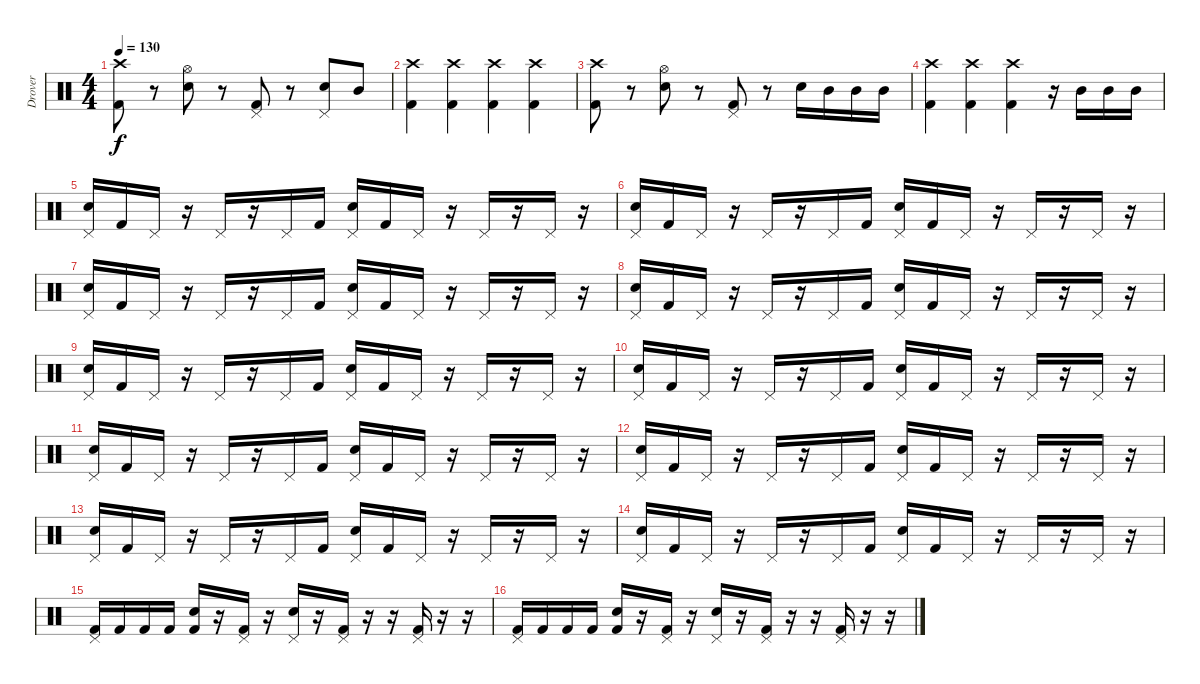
\track ("Drover" "Drover") {instrument percussion}
\staff {score}
\articulation defaults
\ts (4 4)
\tempo 130
\clef neutral
\ks c
("Crash high (hit)" "Kick (hit) 2").8{dy f} r.8 ("Electric Snare (hit)" "Hi-Hat (open)").8 r.8 ("Kick (hit) 2" "Pedal Hi-Hat (hit)").8 r.8 ("Electric Snare (hit)" "Pedal Hi-Hat (hit)").8 "Mid Tom (hit)".8 |
("Kick (hit) 2" "Crash high (hit)").4 ("Kick (hit) 2" "Crash high (hit)").4 ("Kick (hit) 2" "Crash high (hit)").4 ("Kick (hit) 2" "Crash high (hit)").4 |
("Crash high (hit)" "Kick (hit) 2").8 r.8 ("Electric Snare (hit)" "Hi-Hat (open)").8 r.8 ("Kick (hit) 2" "Pedal Hi-Hat (hit)").8 r.8 "Snare (hit) 2".16 "Mid Tom (hit)".16 "Mid Tom (hit)".16 "Mid Tom (hit)".16 |
("Kick (hit) 2" "Crash high (hit)").4 ("Kick (hit) 2" "Crash high (hit)").4 ("Kick (hit) 2" "Crash high (hit)").4 r.16 "Mid Tom (hit)".16 "Mid Tom (hit)".16 "Mid Tom (hit)".16 |
("Electric Snare (hit)" "Pedal Hi-Hat (hit)").16 "Kick (hit) 2".16 "Pedal Hi-Hat (hit)".16 r.16 "Pedal Hi-Hat (hit)".16 r.16 "Pedal Hi-Hat (hit)".16 "Kick (hit) 2".16 ("Electric Snare (hit)" "Pedal Hi-Hat (hit)").16 "Kick (hit) 2".16 "Pedal Hi-Hat (hit)".16 r.16 "Pedal Hi-Hat (hit)".16 r.16 "Pedal Hi-Hat (hit)".16 r.16 |
("Electric Snare (hit)" "Pedal Hi-Hat (hit)").16 "Kick (hit) 2".16 "Pedal Hi-Hat (hit)".16 r.16 "Pedal Hi-Hat (hit)".16 r.16 "Pedal Hi-Hat (hit)".16 "Kick (hit) 2".16 ("Electric Snare (hit)" "Pedal Hi-Hat (hit)").16 "Kick (hit) 2".16 "Pedal Hi-Hat (hit)".16 r.16 "Pedal Hi-Hat (hit)".16 r.16 "Pedal Hi-Hat (hit)".16 r.16 |
("Electric Snare (hit)" "Pedal Hi-Hat (hit)").16 "Kick (hit) 2".16 "Pedal Hi-Hat (hit)".16 r.16 "Pedal Hi-Hat (hit)".16 r.16 "Pedal Hi-Hat (hit)".16 "Kick (hit) 2".16 ("Electric Snare (hit)" "Pedal Hi-Hat (hit)").16 "Kick (hit) 2".16 "Pedal Hi-Hat (hit)".16 r.16 "Pedal Hi-Hat (hit)".16 r.16 "Pedal Hi-Hat (hit)".16 r.16 |
("Electric Snare (hit)" "Pedal Hi-Hat (hit)").16 "Kick (hit) 2".16 "Pedal Hi-Hat (hit)".16 r.16 "Pedal Hi-Hat (hit)".16 r.16 "Pedal Hi-Hat (hit)".16 "Kick (hit) 2".16 ("Electric Snare (hit)" "Pedal Hi-Hat (hit)").16 "Kick (hit) 2".16 "Pedal Hi-Hat (hit)".16 r.16 "Pedal Hi-Hat (hit)".16 r.16 "Pedal Hi-Hat (hit)".16 r.16 |
("Electric Snare (hit)" "Pedal Hi-Hat (hit)").16 "Kick (hit) 2".16 "Pedal Hi-Hat (hit)".16 r.16 "Pedal Hi-Hat (hit)".16 r.16 "Pedal Hi-Hat (hit)".16 "Kick (hit) 2".16 ("Electric Snare (hit)" "Pedal Hi-Hat (hit)").16 "Kick (hit) 2".16 "Pedal Hi-Hat (hit)".16 r.16 "Pedal Hi-Hat (hit)".16 r.16 "Pedal Hi-Hat (hit)".16 r.16 |
("Electric Snare (hit)" "Pedal Hi-Hat (hit)").16 "Kick (hit) 2".16 "Pedal Hi-Hat (hit)".16 r.16 "Pedal Hi-Hat (hit)".16 r.16 "Pedal Hi-Hat (hit)".16 "Kick (hit) 2".16 ("Electric Snare (hit)" "Pedal Hi-Hat (hit)").16 "Kick (hit) 2".16 "Pedal Hi-Hat (hit)".16 r.16 "Pedal Hi-Hat (hit)".16 r.16 "Pedal Hi-Hat (hit)".16 r.16 |
("Electric Snare (hit)" "Pedal Hi-Hat (hit)").16 "Kick (hit) 2".16 "Pedal Hi-Hat (hit)".16 r.16 "Pedal Hi-Hat (hit)".16 r.16 "Pedal Hi-Hat (hit)".16 "Kick (hit) 2".16 ("Electric Snare (hit)" "Pedal Hi-Hat (hit)").16 "Kick (hit) 2".16 "Pedal Hi-Hat (hit)".16 r.16 "Pedal Hi-Hat (hit)".16 r.16 "Pedal Hi-Hat (hit)".16 r.16 |
("Electric Snare (hit)" "Pedal Hi-Hat (hit)").16 "Kick (hit) 2".16 "Pedal Hi-Hat (hit)".16 r.16 "Pedal Hi-Hat (hit)".16 r.16 "Pedal Hi-Hat (hit)".16 "Kick (hit) 2".16 ("Electric Snare (hit)" "Pedal Hi-Hat (hit)").16 "Kick (hit) 2".16 "Pedal Hi-Hat (hit)".16 r.16 "Pedal Hi-Hat (hit)".16 r.16 "Pedal Hi-Hat (hit)".16 r.16 |
("Electric Snare (hit)" "Pedal Hi-Hat (hit)").16 "Kick (hit) 2".16 "Pedal Hi-Hat (hit)".16 r.16 "Pedal Hi-Hat (hit)".16 r.16 "Pedal Hi-Hat (hit)".16 "Kick (hit) 2".16 ("Electric Snare (hit)" "Pedal Hi-Hat (hit)").16 "Kick (hit) 2".16 "Pedal Hi-Hat (hit)".16 r.16 "Pedal Hi-Hat (hit)".16 r.16 "Pedal Hi-Hat (hit)".16 r.16 |
("Electric Snare (hit)" "Pedal Hi-Hat (hit)").16 "Kick (hit) 2".16 "Pedal Hi-Hat (hit)".16 r.16 "Pedal Hi-Hat (hit)".16 r.16 "Pedal Hi-Hat (hit)".16 "Kick (hit) 2".16 ("Electric Snare (hit)" "Pedal Hi-Hat (hit)").16 "Kick (hit) 2".16 "Pedal Hi-Hat (hit)".16 r.16 "Pedal Hi-Hat (hit)".16 r.16 "Pedal Hi-Hat (hit)".16 r.16 |
("Pedal Hi-Hat (hit)" "Kick (hit) 2").16 "Kick (hit) 2".16 "Kick (hit) 2".16 "Kick (hit) 2".16 ("Electric Snare (hit)" "Kick (hit) 2").16 r.16 ("Pedal Hi-Hat (hit)" "Kick (hit) 2").16 r.16 ("Pedal Hi-Hat (hit)" "Electric Snare (hit)").16 r.16 ("Pedal Hi-Hat (hit)" "Kick (hit) 2").16 r.16 r.16 ("Pedal Hi-Hat (hit)" "Kick (hit) 2").16 r.16 r.16 |
("Pedal Hi-Hat (hit)" "Kick (hit) 2").16 "Kick (hit) 2".16 "Kick (hit) 2".16 "Kick (hit) 2".16 ("Electric Snare (hit)" "Kick (hit) 2").16 r.16 ("Pedal Hi-Hat (hit)" "Kick (hit) 2").16 r.16 ("Pedal Hi-Hat (hit)" "Electric Snare (hit)").16 r.16 ("Pedal Hi-Hat (hit)" "Kick (hit) 2").16 r.16 r.16 ("Pedal Hi-Hat (hit)" "Kick (hit) 2").16 r.16 r.16
